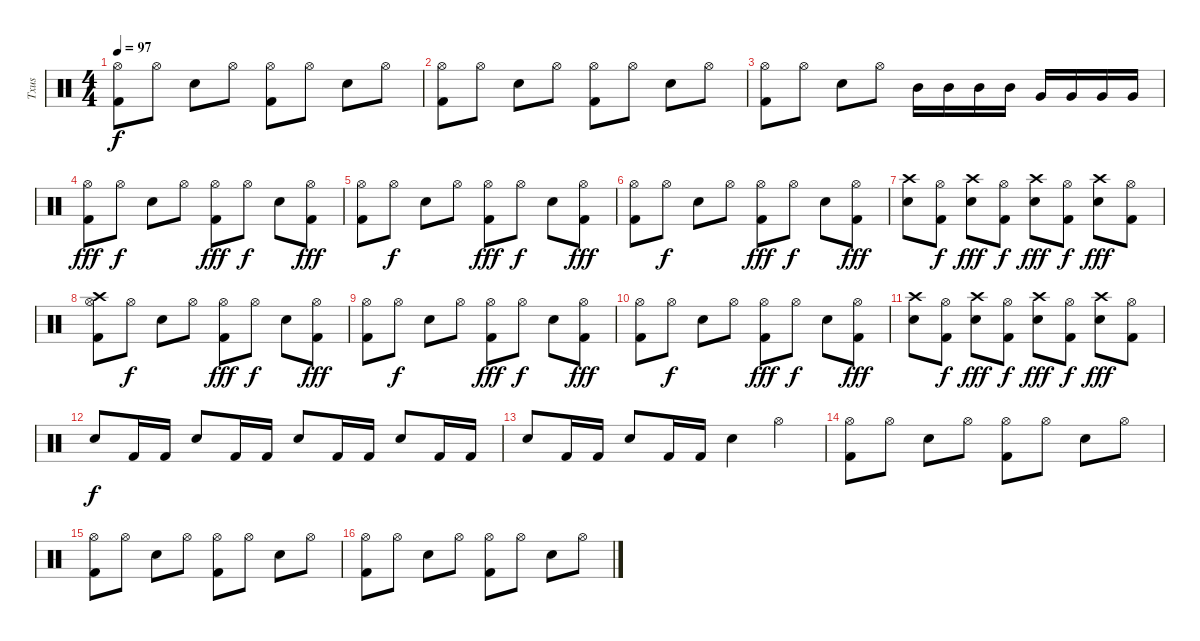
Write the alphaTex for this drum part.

\track ("Txus" "Txus") {instrument percussion}
\staff {score}
\articulation defaults
\ts (4 4)
\tempo 97
\clef neutral
\ks c
("Hi-Hat (open)" "Kick (hit) 2").8{dy f} "Hi-Hat (open)".8 "Snare (hit) 2".8 "Hi-Hat (open)".8 ("Hi-Hat (open)" "Kick (hit) 2").8 "Hi-Hat (open)".8 "Snare (hit) 2".8 "Hi-Hat (open)".8 |
("Hi-Hat (open)" "Kick (hit) 2").8 "Hi-Hat (open)".8 "Snare (hit) 2".8 "Hi-Hat (open)".8 ("Hi-Hat (open)" "Kick (hit) 2").8 "Hi-Hat (open)".8 "Snare (hit) 2".8 "Hi-Hat (open)".8 |
("Hi-Hat (open)" "Kick (hit) 2").8 "Hi-Hat (open)".8 "Snare (hit) 2".8 "Hi-Hat (open)".8 "Mid Tom (hit)".16 "Mid Tom (hit)".16 "Mid Tom (hit)".16 "Mid Tom (hit)".16 "Very Low Tom (hit)".16 "Very Low Tom (hit)".16 "Very Low Tom (hit)".16 "Very Low Tom (hit)".16 |
("Hi-Hat (open)" "Kick (hit) 2").8{dy fff} "Hi-Hat (open)".8{dy f} "Snare (hit) 2".8 "Hi-Hat (open)".8 ("Hi-Hat (open)" "Kick (hit) 2").8{dy fff} "Hi-Hat (open)".8{dy f} "Snare (hit) 2".8 ("Hi-Hat (open)" "Kick (hit) 2").8{dy fff} |
("Hi-Hat (open)" "Kick (hit) 2").8 "Hi-Hat (open)".8{dy f} "Snare (hit) 2".8 "Hi-Hat (open)".8 ("Hi-Hat (open)" "Kick (hit) 2").8{dy fff} "Hi-Hat (open)".8{dy f} "Snare (hit) 2".8 ("Hi-Hat (open)" "Kick (hit) 2").8{dy fff} |
("Hi-Hat (open)" "Kick (hit) 2").8 "Hi-Hat (open)".8{dy f} "Snare (hit) 2".8 "Hi-Hat (open)".8 ("Hi-Hat (open)" "Kick (hit) 2").8{dy fff} "Hi-Hat (open)".8{dy f} "Snare (hit) 2".8 ("Hi-Hat (open)" "Kick (hit) 2").8{dy fff} |
("Crash high (hit)" "Snare (hit) 2").8 ("Hi-Hat (open)" "Kick (hit) 2").8{dy f} ("Crash high (hit)" "Snare (hit) 2").8{dy fff} ("Hi-Hat (open)" "Kick (hit) 2").8{dy f} ("Crash high (hit)" "Snare (hit) 2").8{dy fff} ("Hi-Hat (open)" "Kick (hit) 2").8{dy f} ("Crash high (hit)" "Snare (hit) 2").8{dy fff} ("Hi-Hat (open)" "Kick (hit) 2").8 |
("Crash high (hit)" "Hi-Hat (open)" "Kick (hit) 2").8 "Hi-Hat (open)".8{dy f} "Snare (hit) 2".8 "Hi-Hat (open)".8 ("Hi-Hat (open)" "Kick (hit) 2").8{dy fff} "Hi-Hat (open)".8{dy f} "Snare (hit) 2".8 ("Hi-Hat (open)" "Kick (hit) 2").8{dy fff} |
("Hi-Hat (open)" "Kick (hit) 2").8 "Hi-Hat (open)".8{dy f} "Snare (hit) 2".8 "Hi-Hat (open)".8 ("Hi-Hat (open)" "Kick (hit) 2").8{dy fff} "Hi-Hat (open)".8{dy f} "Snare (hit) 2".8 ("Hi-Hat (open)" "Kick (hit) 2").8{dy fff} |
("Hi-Hat (open)" "Kick (hit) 2").8 "Hi-Hat (open)".8{dy f} "Snare (hit) 2".8 "Hi-Hat (open)".8 ("Hi-Hat (open)" "Kick (hit) 2").8{dy fff} "Hi-Hat (open)".8{dy f} "Snare (hit) 2".8 ("Hi-Hat (open)" "Kick (hit) 2").8{dy fff} |
("Crash high (hit)" "Snare (hit) 2").8 ("Hi-Hat (open)" "Kick (hit) 2").8{dy f} ("Crash high (hit)" "Snare (hit) 2").8{dy fff} ("Hi-Hat (open)" "Kick (hit) 2").8{dy f} ("Crash high (hit)" "Snare (hit) 2").8{dy fff} ("Hi-Hat (open)" "Kick (hit) 2").8{dy f} ("Crash high (hit)" "Snare (hit) 2").8{dy fff} ("Hi-Hat (open)" "Kick (hit) 2").8 |
"Snare (hit) 2".8{dy f} "Kick (hit) 2".16 "Kick (hit) 2".16 "Snare (hit) 2".8 "Kick (hit) 2".16 "Kick (hit) 2".16 "Snare (hit) 2".8 "Kick (hit) 2".16 "Kick (hit) 2".16 "Snare (hit) 2".8 "Kick (hit) 2".16 "Kick (hit) 2".16 |
"Snare (hit) 2".8 "Kick (hit) 2".16 "Kick (hit) 2".16 "Snare (hit) 2".8 "Kick (hit) 2".16 "Kick (hit) 2".16 "Snare (hit) 2".4 "Hi-Hat (open)".4 |
("Hi-Hat (open)" "Kick (hit) 2").8 "Hi-Hat (open)".8 "Snare (hit) 2".8 "Hi-Hat (open)".8 ("Hi-Hat (open)" "Kick (hit) 2").8 "Hi-Hat (open)".8 "Snare (hit) 2".8 "Hi-Hat (open)".8 |
("Hi-Hat (open)" "Kick (hit) 2").8 "Hi-Hat (open)".8 "Snare (hit) 2".8 "Hi-Hat (open)".8 ("Hi-Hat (open)" "Kick (hit) 2").8 "Hi-Hat (open)".8 "Snare (hit) 2".8 "Hi-Hat (open)".8 |
("Hi-Hat (open)" "Kick (hit) 2").8 "Hi-Hat (open)".8 "Snare (hit) 2".8 "Hi-Hat (open)".8 ("Hi-Hat (open)" "Kick (hit) 2").8 "Hi-Hat (open)".8 "Snare (hit) 2".8 "Hi-Hat (open)".8
